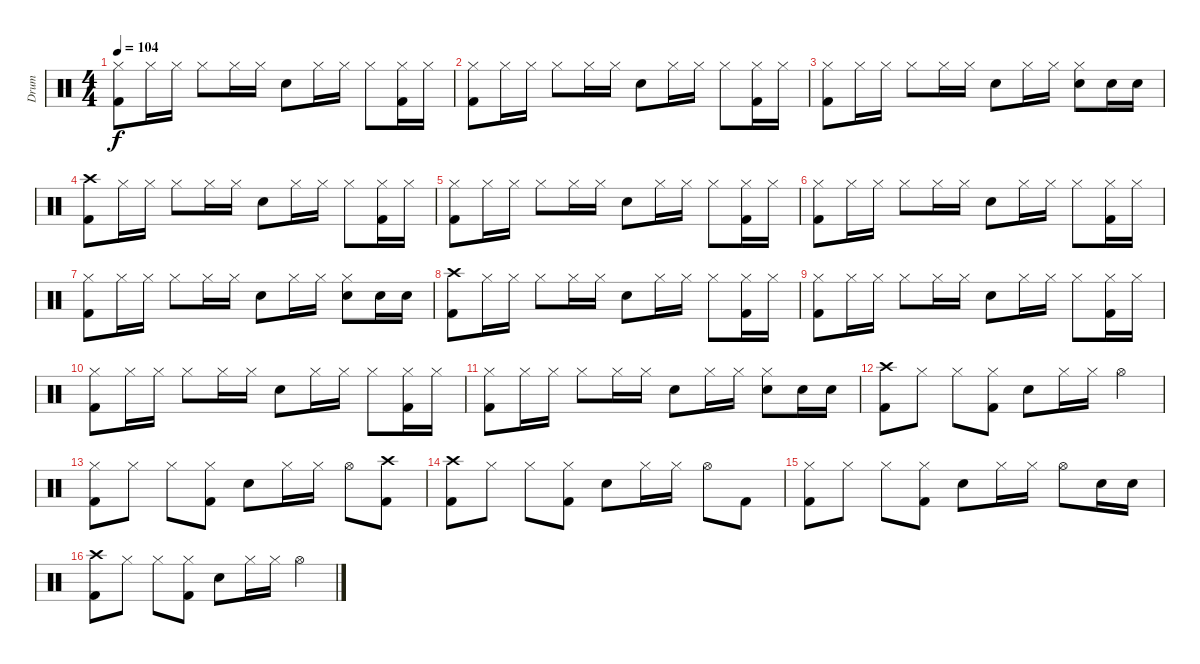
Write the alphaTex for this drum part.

\track ("Drum" "Drum") {instrument percussion}
\staff {score}
\articulation defaults
\ts (4 4)
\tempo 104
\clef neutral
\ks c
("Hi-Hat (closed)" "Kick (hit) 2").8{dy f} "Hi-Hat (closed)".16 "Hi-Hat (closed)".16 "Hi-Hat (closed)".8 "Hi-Hat (closed)".16 "Hi-Hat (closed)".16 "Snare (hit) 2".8 "Hi-Hat (closed)".16 "Hi-Hat (closed)".16 "Hi-Hat (closed)".8 ("Hi-Hat (closed)" "Kick (hit) 2").16 "Hi-Hat (closed)".16 |
("Hi-Hat (closed)" "Kick (hit) 2").8 "Hi-Hat (closed)".16 "Hi-Hat (closed)".16 "Hi-Hat (closed)".8 "Hi-Hat (closed)".16 "Hi-Hat (closed)".16 "Snare (hit) 2".8 "Hi-Hat (closed)".16 "Hi-Hat (closed)".16 "Hi-Hat (closed)".8 ("Hi-Hat (closed)" "Kick (hit) 2").16 "Hi-Hat (closed)".16 |
("Hi-Hat (closed)" "Kick (hit) 2").8 "Hi-Hat (closed)".16 "Hi-Hat (closed)".16 "Hi-Hat (closed)".8 "Hi-Hat (closed)".16 "Hi-Hat (closed)".16 "Snare (hit) 2".8 "Hi-Hat (closed)".16 "Hi-Hat (closed)".16 ("Hi-Hat (closed)" "Snare (hit) 2").8 "Snare (hit) 2".16 "Snare (hit) 2".16 |
("Crash high (hit)" "Kick (hit) 2").8 "Hi-Hat (closed)".16 "Hi-Hat (closed)".16 "Hi-Hat (closed)".8 "Hi-Hat (closed)".16 "Hi-Hat (closed)".16 "Snare (hit) 2".8 "Hi-Hat (closed)".16 "Hi-Hat (closed)".16 "Hi-Hat (closed)".8 ("Hi-Hat (closed)" "Kick (hit) 2").16 "Hi-Hat (closed)".16 |
("Hi-Hat (closed)" "Kick (hit) 2").8 "Hi-Hat (closed)".16 "Hi-Hat (closed)".16 "Hi-Hat (closed)".8 "Hi-Hat (closed)".16 "Hi-Hat (closed)".16 "Snare (hit) 2".8 "Hi-Hat (closed)".16 "Hi-Hat (closed)".16 "Hi-Hat (closed)".8 ("Hi-Hat (closed)" "Kick (hit) 2").16 "Hi-Hat (closed)".16 |
("Hi-Hat (closed)" "Kick (hit) 2").8 "Hi-Hat (closed)".16 "Hi-Hat (closed)".16 "Hi-Hat (closed)".8 "Hi-Hat (closed)".16 "Hi-Hat (closed)".16 "Snare (hit) 2".8 "Hi-Hat (closed)".16 "Hi-Hat (closed)".16 "Hi-Hat (closed)".8 ("Hi-Hat (closed)" "Kick (hit) 2").16 "Hi-Hat (closed)".16 |
("Hi-Hat (closed)" "Kick (hit) 2").8 "Hi-Hat (closed)".16 "Hi-Hat (closed)".16 "Hi-Hat (closed)".8 "Hi-Hat (closed)".16 "Hi-Hat (closed)".16 "Snare (hit) 2".8 "Hi-Hat (closed)".16 "Hi-Hat (closed)".16 ("Hi-Hat (closed)" "Snare (hit) 2").8 "Snare (hit) 2".16 "Snare (hit) 2".16 |
("Crash high (hit)" "Kick (hit) 2").8 "Hi-Hat (closed)".16 "Hi-Hat (closed)".16 "Hi-Hat (closed)".8 "Hi-Hat (closed)".16 "Hi-Hat (closed)".16 "Snare (hit) 2".8 "Hi-Hat (closed)".16 "Hi-Hat (closed)".16 "Hi-Hat (closed)".8 ("Hi-Hat (closed)" "Kick (hit) 2").16 "Hi-Hat (closed)".16 |
("Hi-Hat (closed)" "Kick (hit) 2").8 "Hi-Hat (closed)".16 "Hi-Hat (closed)".16 "Hi-Hat (closed)".8 "Hi-Hat (closed)".16 "Hi-Hat (closed)".16 "Snare (hit) 2".8 "Hi-Hat (closed)".16 "Hi-Hat (closed)".16 "Hi-Hat (closed)".8 ("Hi-Hat (closed)" "Kick (hit) 2").16 "Hi-Hat (closed)".16 |
("Hi-Hat (closed)" "Kick (hit) 2").8 "Hi-Hat (closed)".16 "Hi-Hat (closed)".16 "Hi-Hat (closed)".8 "Hi-Hat (closed)".16 "Hi-Hat (closed)".16 "Snare (hit) 2".8 "Hi-Hat (closed)".16 "Hi-Hat (closed)".16 "Hi-Hat (closed)".8 ("Hi-Hat (closed)" "Kick (hit) 2").16 "Hi-Hat (closed)".16 |
("Hi-Hat (closed)" "Kick (hit) 2").8 "Hi-Hat (closed)".16 "Hi-Hat (closed)".16 "Hi-Hat (closed)".8 "Hi-Hat (closed)".16 "Hi-Hat (closed)".16 "Snare (hit) 2".8 "Hi-Hat (closed)".16 "Hi-Hat (closed)".16 ("Hi-Hat (closed)" "Snare (hit) 2").8 "Snare (hit) 2".16 "Snare (hit) 2".16 |
("Crash high (hit)" "Kick (hit) 2").8 "Hi-Hat (closed)".8 "Hi-Hat (closed)".8 ("Hi-Hat (closed)" "Kick (hit) 2").8 "Snare (hit) 2".8 "Hi-Hat (closed)".16 "Hi-Hat (closed)".16 "Hi-Hat (open)".4 |
("Hi-Hat (closed)" "Kick (hit) 2").8 "Hi-Hat (closed)".8 "Hi-Hat (closed)".8 ("Hi-Hat (closed)" "Kick (hit) 2").8 "Snare (hit) 2".8 "Hi-Hat (closed)".16 "Hi-Hat (closed)".16 "Hi-Hat (open)".8 ("Crash high (hit)" "Kick (hit) 2").8 |
("Crash high (hit)" "Kick (hit) 2").8 "Hi-Hat (closed)".8 "Hi-Hat (closed)".8 ("Hi-Hat (closed)" "Kick (hit) 2").8 "Snare (hit) 2".8 "Hi-Hat (closed)".16 "Hi-Hat (closed)".16 "Hi-Hat (open)".8 "Kick (hit) 2".8 |
("Hi-Hat (closed)" "Kick (hit) 2").8 "Hi-Hat (closed)".8 "Hi-Hat (closed)".8 ("Hi-Hat (closed)" "Kick (hit) 2").8 "Snare (hit) 2".8 "Hi-Hat (closed)".16 "Hi-Hat (closed)".16 "Hi-Hat (open)".8 "Snare (hit) 2".16 "Snare (hit) 2".16 |
("Crash high (hit)" "Kick (hit) 2").8 "Hi-Hat (closed)".8 "Hi-Hat (closed)".8 ("Hi-Hat (closed)" "Kick (hit) 2").8 "Snare (hit) 2".8 "Hi-Hat (closed)".16 "Hi-Hat (closed)".16 "Hi-Hat (open)".4
